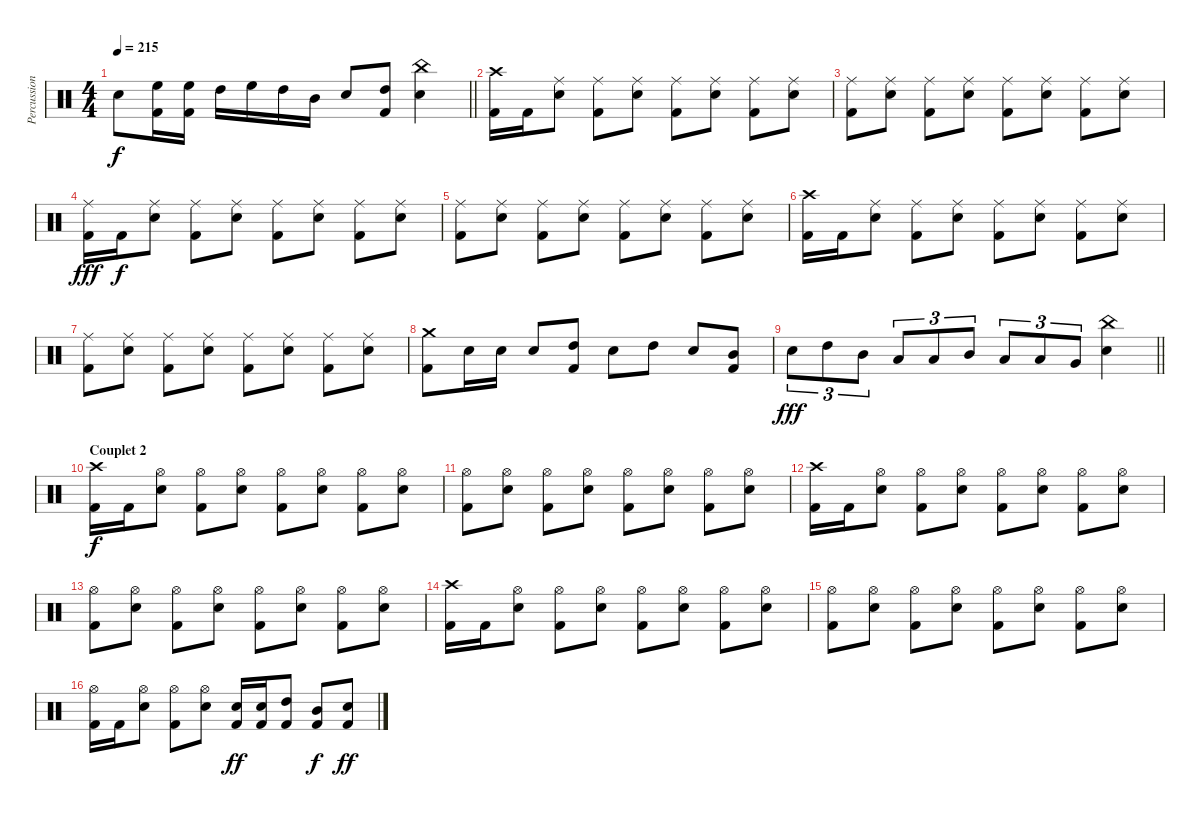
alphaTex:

\track ("Percussions" "Percussion") {instrument percussion}
\staff {score}
\articulation defaults
\ts (4 4)
\tempo 215
\clef neutral
\barLineRight lightlight
\ks c "Electric Snare (hit)".8{dy f}
("High Floor Tom (hit)" "Kick (hit) 2").16 ("High Floor Tom (hit)" "Kick (hit) 2").16 "High Tom (hit)".16 "High Floor Tom (hit)".16 "High Tom (hit)".16 "Mid Tom (hit)".16 "Electric Snare (hit)".8 ("High Tom (hit)" "Kick (hit) 2").8 ("China (hit)" "Electric Snare (hit)").4 |
("Crash high (hit)" "Kick (hit) 2").16 "Kick (hit) 2".16 ("Ride (middle)" "Electric Snare (hit)").8 ("Ride (middle)" "Kick (hit) 2").8 ("Ride (middle)" "Electric Snare (hit)").8 ("Ride (middle)" "Kick (hit) 2").8 ("Ride (middle)" "Electric Snare (hit)").8 ("Ride (middle)" "Kick (hit) 2").8 ("Ride (middle)" "Electric Snare (hit)").8 |
("Ride (middle)" "Kick (hit) 2").8 ("Ride (middle)" "Electric Snare (hit)").8 ("Ride (middle)" "Kick (hit) 2").8 ("Ride (middle)" "Electric Snare (hit)").8 ("Ride (middle)" "Kick (hit) 2").8 ("Ride (middle)" "Electric Snare (hit)").8 ("Ride (middle)" "Kick (hit) 2").8 ("Ride (middle)" "Electric Snare (hit)").8 |
("Ride (middle)" "Kick (hit) 2").16{dy fff} "Kick (hit) 2".16{dy f} ("Ride (middle)" "Electric Snare (hit)").8 ("Ride (middle)" "Kick (hit) 2").8 ("Ride (middle)" "Electric Snare (hit)").8 ("Ride (middle)" "Kick (hit) 2").8 ("Ride (middle)" "Electric Snare (hit)").8 ("Ride (middle)" "Kick (hit) 2").8 ("Ride (middle)" "Electric Snare (hit)").8 |
("Ride (middle)" "Kick (hit) 2").8 ("Ride (middle)" "Electric Snare (hit)").8 ("Ride (middle)" "Kick (hit) 2").8 ("Ride (middle)" "Electric Snare (hit)").8 ("Ride (middle)" "Kick (hit) 2").8 ("Ride (middle)" "Electric Snare (hit)").8 ("Ride (middle)" "Kick (hit) 2").8 ("Ride (middle)" "Electric Snare (hit)").8 |
("Crash high (hit)" "Kick (hit) 2").16 "Kick (hit) 2".16 ("Ride (middle)" "Electric Snare (hit)").8 ("Ride (middle)" "Kick (hit) 2").8 ("Ride (middle)" "Electric Snare (hit)").8 ("Ride (middle)" "Kick (hit) 2").8 ("Ride (middle)" "Electric Snare (hit)").8 ("Ride (middle)" "Kick (hit) 2").8 ("Ride (middle)" "Electric Snare (hit)").8 |
("Ride (middle)" "Kick (hit) 2").8 ("Ride (middle)" "Electric Snare (hit)").8 ("Ride (middle)" "Kick (hit) 2").8 ("Ride (middle)" "Electric Snare (hit)").8 ("Ride (middle)" "Kick (hit) 2").8 ("Ride (middle)" "Electric Snare (hit)").8 ("Ride (middle)" "Kick (hit) 2").8 ("Ride (middle)" "Electric Snare (hit)").8 |
("Crash medium (hit)" "Kick (hit) 2").8 "Electric Snare (hit)".16 "Electric Snare (hit)".16 "Electric Snare (hit)".8 ("High Tom (hit)" "Kick (hit) 2").8 "Electric Snare (hit)".8 "High Tom (hit)".8 "Electric Snare (hit)".8 ("Mid Tom (hit)" "Kick (hit) 2").8 |
\barLineRight lightlight "Electric Snare (hit)".8{tu (3 2) dy fff} "High Tom (hit)".8{tu (3 2)} "Mid Tom (hit)".8{tu (3 2)} "Low Tom (hit)".8{tu (3 2)} "Low Tom (hit)".8{tu (3 2)} "Mid Tom (hit)".8{tu (3 2)} "Low Tom (hit)".8{tu (3 2)} "Low Tom (hit)".8{tu (3 2)} "Very Low Tom (hit)".8{tu (3 2)}
("China (hit)" "Electric Snare (hit)").4 |
\section ("" "Couplet 2")
("Crash high (hit)" "Kick (hit) 2").16{dy f} "Kick (hit) 2".16 ("Hi-Hat (open)" "Electric Snare (hit)").8 ("Hi-Hat (open)" "Kick (hit) 2").8 ("Hi-Hat (open)" "Electric Snare (hit)").8 ("Hi-Hat (open)" "Kick (hit) 2").8 ("Hi-Hat (open)" "Electric Snare (hit)").8 ("Hi-Hat (open)" "Kick (hit) 2").8 ("Hi-Hat (open)" "Electric Snare (hit)").8 |
("Hi-Hat (open)" "Kick (hit) 2").8 ("Hi-Hat (open)" "Electric Snare (hit)").8 ("Hi-Hat (open)" "Kick (hit) 2").8 ("Hi-Hat (open)" "Electric Snare (hit)").8 ("Hi-Hat (open)" "Kick (hit) 2").8 ("Hi-Hat (open)" "Electric Snare (hit)").8 ("Hi-Hat (open)" "Kick (hit) 2").8 ("Hi-Hat (open)" "Electric Snare (hit)").8 |
("Crash high (hit)" "Kick (hit) 2").16 "Kick (hit) 2".16 ("Hi-Hat (open)" "Electric Snare (hit)").8 ("Hi-Hat (open)" "Kick (hit) 2").8 ("Hi-Hat (open)" "Electric Snare (hit)").8 ("Hi-Hat (open)" "Kick (hit) 2").8 ("Hi-Hat (open)" "Electric Snare (hit)").8 ("Hi-Hat (open)" "Kick (hit) 2").8 ("Hi-Hat (open)" "Electric Snare (hit)").8 |
("Hi-Hat (open)" "Kick (hit) 2").8 ("Hi-Hat (open)" "Electric Snare (hit)").8 ("Hi-Hat (open)" "Kick (hit) 2").8 ("Hi-Hat (open)" "Electric Snare (hit)").8 ("Hi-Hat (open)" "Kick (hit) 2").8 ("Hi-Hat (open)" "Electric Snare (hit)").8 ("Hi-Hat (open)" "Kick (hit) 2").8 ("Hi-Hat (open)" "Electric Snare (hit)").8 |
("Crash high (hit)" "Kick (hit) 2").16 "Kick (hit) 2".16 ("Hi-Hat (open)" "Electric Snare (hit)").8 ("Hi-Hat (open)" "Kick (hit) 2").8 ("Hi-Hat (open)" "Electric Snare (hit)").8 ("Hi-Hat (open)" "Kick (hit) 2").8 ("Hi-Hat (open)" "Electric Snare (hit)").8 ("Hi-Hat (open)" "Kick (hit) 2").8 ("Hi-Hat (open)" "Electric Snare (hit)").8 |
("Hi-Hat (open)" "Kick (hit) 2").8 ("Hi-Hat (open)" "Electric Snare (hit)").8 ("Hi-Hat (open)" "Kick (hit) 2").8 ("Hi-Hat (open)" "Electric Snare (hit)").8 ("Hi-Hat (open)" "Kick (hit) 2").8 ("Hi-Hat (open)" "Electric Snare (hit)").8 ("Hi-Hat (open)" "Kick (hit) 2").8 ("Hi-Hat (open)" "Electric Snare (hit)").8 |
("Hi-Hat (open)" "Kick (hit) 2").16 "Kick (hit) 2".16 ("Hi-Hat (open)" "Electric Snare (hit)").8 ("Hi-Hat (open)" "Kick (hit) 2").8 ("Hi-Hat (open)" "Electric Snare (hit)").8 ("Electric Snare (hit)" "Kick (hit) 2").16{dy ff} ("Electric Snare (hit)" "Kick (hit) 2").16 ("High Tom (hit)" "Kick (hit) 2").8 ("Mid Tom (hit)" "Kick (hit) 2").8{dy f} ("Electric Snare (hit)" "Kick (hit) 2").8{dy ff}
